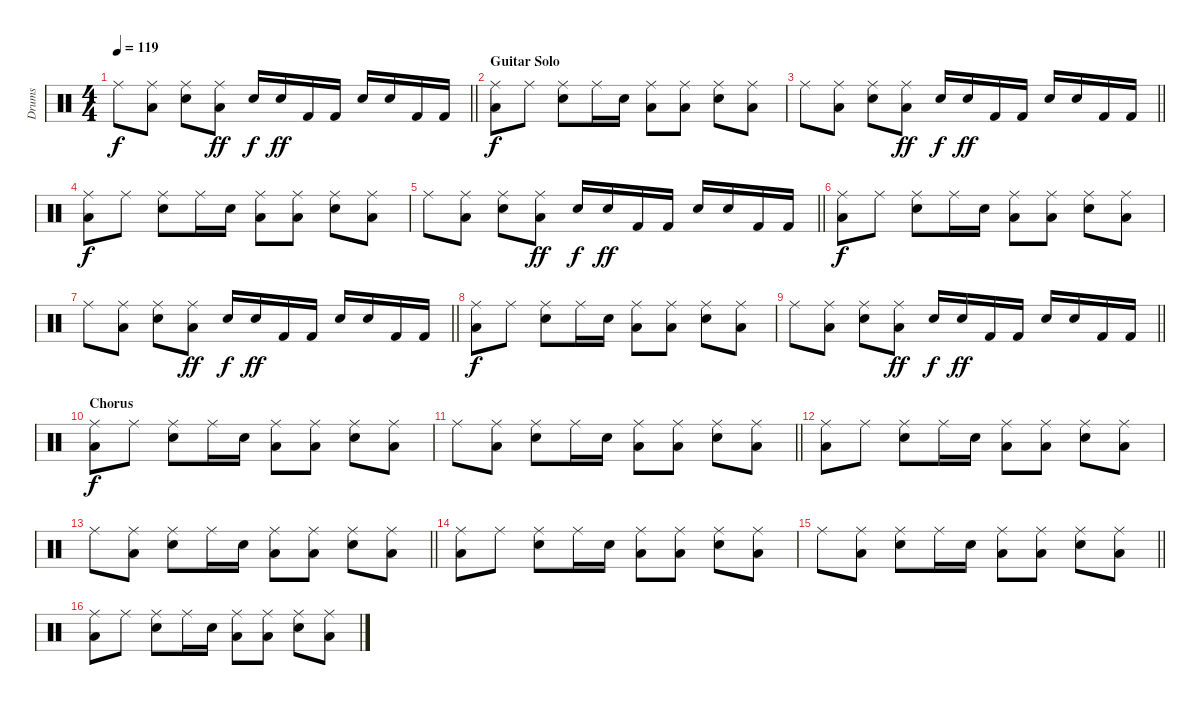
\track ("Drums" "Drums") {instrument percussion}
\staff {score}
\articulation defaults
\ts (4 4)
\tempo 119
\clef neutral
\barLineRight lightlight
\ks c "Ride (middle)".8{dy f}
("Ride (middle)" "Low Floor Tom (hit)").8 ("Ride (middle)" "Electric Snare (hit)").8 ("Ride (middle)" "Low Floor Tom (hit)").8{dy ff} "Electric Snare (hit)".16{dy f} "Electric Snare (hit)".16{dy ff} "Kick (hit) 2".16 "Kick (hit) 2".16 "Electric Snare (hit)".16 "Electric Snare (hit)".16 "Kick (hit) 2".16 "Kick (hit) 2".16 |
\section ("" "Guitar Solo")
("Ride (middle)" "Low Floor Tom (hit)").8{dy f} "Ride (middle)".8 ("Ride (middle)" "Electric Snare (hit)").8 "Ride (middle)".16 "Electric Snare (hit)".16 ("Ride (middle)" "Low Floor Tom (hit)").8 ("Ride (middle)" "Low Floor Tom (hit)").8 ("Ride (middle)" "Electric Snare (hit)").8 ("Ride (middle)" "Low Floor Tom (hit)").8 |
\barLineRight lightlight "Ride (middle)".8
("Ride (middle)" "Low Floor Tom (hit)").8 ("Ride (middle)" "Electric Snare (hit)").8 ("Ride (middle)" "Low Floor Tom (hit)").8{dy ff} "Electric Snare (hit)".16{dy f} "Electric Snare (hit)".16{dy ff} "Kick (hit) 2".16 "Kick (hit) 2".16 "Electric Snare (hit)".16 "Electric Snare (hit)".16 "Kick (hit) 2".16 "Kick (hit) 2".16 |
("Ride (middle)" "Low Floor Tom (hit)").8{dy f} "Ride (middle)".8 ("Ride (middle)" "Electric Snare (hit)").8 "Ride (middle)".16 "Electric Snare (hit)".16 ("Ride (middle)" "Low Floor Tom (hit)").8 ("Ride (middle)" "Low Floor Tom (hit)").8 ("Ride (middle)" "Electric Snare (hit)").8 ("Ride (middle)" "Low Floor Tom (hit)").8 |
\barLineRight lightlight "Ride (middle)".8
("Ride (middle)" "Low Floor Tom (hit)").8 ("Ride (middle)" "Electric Snare (hit)").8 ("Ride (middle)" "Low Floor Tom (hit)").8{dy ff} "Electric Snare (hit)".16{dy f} "Electric Snare (hit)".16{dy ff} "Kick (hit) 2".16 "Kick (hit) 2".16 "Electric Snare (hit)".16 "Electric Snare (hit)".16 "Kick (hit) 2".16 "Kick (hit) 2".16 |
("Ride (middle)" "Low Floor Tom (hit)").8{dy f} "Ride (middle)".8 ("Ride (middle)" "Electric Snare (hit)").8 "Ride (middle)".16 "Electric Snare (hit)".16 ("Ride (middle)" "Low Floor Tom (hit)").8 ("Ride (middle)" "Low Floor Tom (hit)").8 ("Ride (middle)" "Electric Snare (hit)").8 ("Ride (middle)" "Low Floor Tom (hit)").8 |
\barLineRight lightlight "Ride (middle)".8
("Ride (middle)" "Low Floor Tom (hit)").8 ("Ride (middle)" "Electric Snare (hit)").8 ("Ride (middle)" "Low Floor Tom (hit)").8{dy ff} "Electric Snare (hit)".16{dy f} "Electric Snare (hit)".16{dy ff} "Kick (hit) 2".16 "Kick (hit) 2".16 "Electric Snare (hit)".16 "Electric Snare (hit)".16 "Kick (hit) 2".16 "Kick (hit) 2".16 |
("Ride (middle)" "Low Floor Tom (hit)").8{dy f} "Ride (middle)".8 ("Ride (middle)" "Electric Snare (hit)").8 "Ride (middle)".16 "Electric Snare (hit)".16 ("Ride (middle)" "Low Floor Tom (hit)").8 ("Ride (middle)" "Low Floor Tom (hit)").8 ("Ride (middle)" "Electric Snare (hit)").8 ("Ride (middle)" "Low Floor Tom (hit)").8 |
\barLineRight lightlight "Ride (middle)".8
("Ride (middle)" "Low Floor Tom (hit)").8 ("Ride (middle)" "Electric Snare (hit)").8 ("Ride (middle)" "Low Floor Tom (hit)").8{dy ff} "Electric Snare (hit)".16{dy f} "Electric Snare (hit)".16{dy ff} "Kick (hit) 2".16 "Kick (hit) 2".16 "Electric Snare (hit)".16 "Electric Snare (hit)".16 "Kick (hit) 2".16 "Kick (hit) 2".16 |
\section ("" "Chorus")
("Ride (middle)" "Low Floor Tom (hit)").8{dy f} "Ride (middle)".8 ("Ride (middle)" "Electric Snare (hit)").8 "Ride (middle)".16 "Electric Snare (hit)".16 ("Ride (middle)" "Low Floor Tom (hit)").8 ("Ride (middle)" "Low Floor Tom (hit)").8 ("Ride (middle)" "Electric Snare (hit)").8 ("Ride (middle)" "Low Floor Tom (hit)").8 |
\barLineRight lightlight "Ride (middle)".8
("Ride (middle)" "Low Floor Tom (hit)").8 ("Ride (middle)" "Electric Snare (hit)").8 "Ride (middle)".16 "Electric Snare (hit)".16 ("Ride (middle)" "Low Floor Tom (hit)").8 ("Ride (middle)" "Low Floor Tom (hit)").8 ("Ride (middle)" "Electric Snare (hit)").8 ("Ride (middle)" "Low Floor Tom (hit)").8 |
("Ride (middle)" "Low Floor Tom (hit)").8 "Ride (middle)".8 ("Ride (middle)" "Electric Snare (hit)").8 "Ride (middle)".16 "Electric Snare (hit)".16 ("Ride (middle)" "Low Floor Tom (hit)").8 ("Ride (middle)" "Low Floor Tom (hit)").8 ("Ride (middle)" "Electric Snare (hit)").8 ("Ride (middle)" "Low Floor Tom (hit)").8 |
\barLineRight lightlight "Ride (middle)".8
("Ride (middle)" "Low Floor Tom (hit)").8 ("Ride (middle)" "Electric Snare (hit)").8 "Ride (middle)".16 "Electric Snare (hit)".16 ("Ride (middle)" "Low Floor Tom (hit)").8 ("Ride (middle)" "Low Floor Tom (hit)").8 ("Ride (middle)" "Electric Snare (hit)").8 ("Ride (middle)" "Low Floor Tom (hit)").8 |
("Ride (middle)" "Low Floor Tom (hit)").8 "Ride (middle)".8 ("Ride (middle)" "Electric Snare (hit)").8 "Ride (middle)".16 "Electric Snare (hit)".16 ("Ride (middle)" "Low Floor Tom (hit)").8 ("Ride (middle)" "Low Floor Tom (hit)").8 ("Ride (middle)" "Electric Snare (hit)").8 ("Ride (middle)" "Low Floor Tom (hit)").8 |
\barLineRight lightlight "Ride (middle)".8
("Ride (middle)" "Low Floor Tom (hit)").8 ("Ride (middle)" "Electric Snare (hit)").8 "Ride (middle)".16 "Electric Snare (hit)".16 ("Ride (middle)" "Low Floor Tom (hit)").8 ("Ride (middle)" "Low Floor Tom (hit)").8 ("Ride (middle)" "Electric Snare (hit)").8 ("Ride (middle)" "Low Floor Tom (hit)").8 |
("Ride (middle)" "Low Floor Tom (hit)").8 "Ride (middle)".8 ("Ride (middle)" "Electric Snare (hit)").8 "Ride (middle)".16 "Electric Snare (hit)".16 ("Ride (middle)" "Low Floor Tom (hit)").8 ("Ride (middle)" "Low Floor Tom (hit)").8 ("Ride (middle)" "Electric Snare (hit)").8 ("Ride (middle)" "Low Floor Tom (hit)").8
